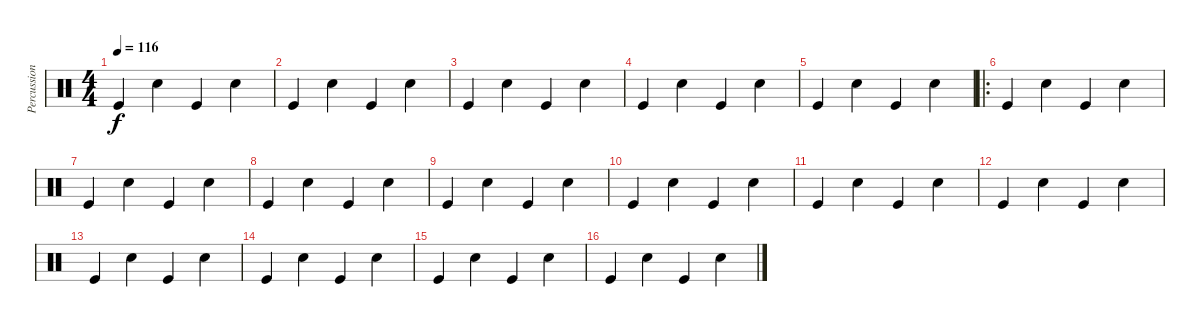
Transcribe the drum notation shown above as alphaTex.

\track ("Percussions" "Percussion") {instrument percussion}
\staff {score}
\articulation defaults
\ts (4 4)
\tempo 116
\clef neutral
\ks c "Kick (hit)".4{dy f} "Snare (hit) 2".4 "Kick (hit)".4 "Snare (hit) 2".4
|
"Kick (hit)".4 "Snare (hit) 2".4 "Kick (hit)".4 "Snare (hit) 2".4 |
"Kick (hit)".4 "Snare (hit) 2".4 "Kick (hit)".4 "Snare (hit) 2".4 |
"Kick (hit)".4 "Snare (hit) 2".4 "Kick (hit)".4 "Snare (hit) 2".4 |
"Kick (hit)".4 "Snare (hit) 2".4 "Kick (hit)".4 "Snare (hit) 2".4 |
\ro "Kick (hit)".4 "Snare (hit) 2".4 "Kick (hit)".4 "Snare (hit) 2".4
|
"Kick (hit)".4 "Snare (hit) 2".4 "Kick (hit)".4 "Snare (hit) 2".4 |
"Kick (hit)".4 "Snare (hit) 2".4 "Kick (hit)".4 "Snare (hit) 2".4 |
"Kick (hit)".4 "Snare (hit) 2".4 "Kick (hit)".4 "Snare (hit) 2".4 |
"Kick (hit)".4 "Snare (hit) 2".4 "Kick (hit)".4 "Snare (hit) 2".4 |
"Kick (hit)".4 "Snare (hit) 2".4 "Kick (hit)".4 "Snare (hit) 2".4 |
"Kick (hit)".4 "Snare (hit) 2".4 "Kick (hit)".4 "Snare (hit) 2".4 |
"Kick (hit)".4 "Snare (hit) 2".4 "Kick (hit)".4 "Snare (hit) 2".4 |
"Kick (hit)".4 "Snare (hit) 2".4 "Kick (hit)".4 "Snare (hit) 2".4 |
"Kick (hit)".4 "Snare (hit) 2".4 "Kick (hit)".4 "Snare (hit) 2".4 |
"Kick (hit)".4 "Snare (hit) 2".4 "Kick (hit)".4 "Snare (hit) 2".4
